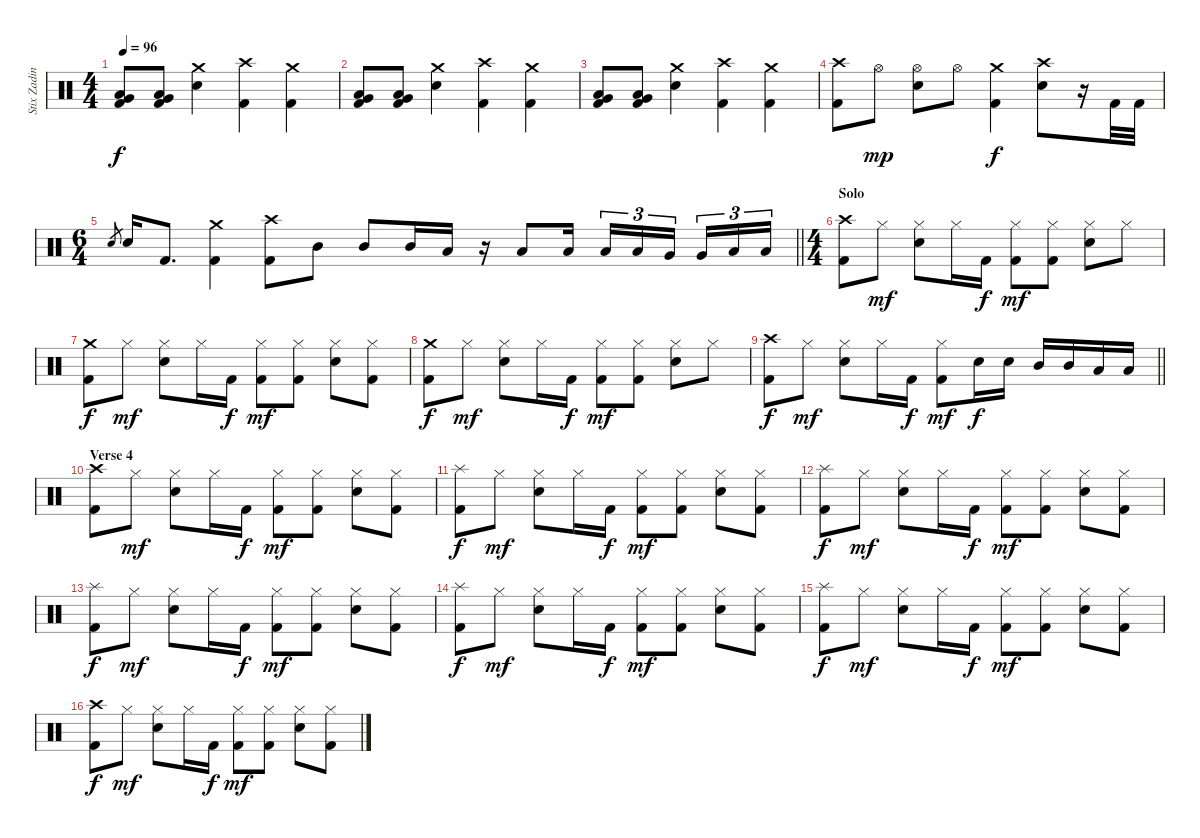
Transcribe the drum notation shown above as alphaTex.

\track ("Stix Zadinia" "Stix Zadin") {instrument percussion}
\staff {score}
\articulation defaults
\ts (4 4)
\tempo 96
\clef neutral
\ks c
("Very Low Tom (hit)" "Low Floor Tom (hit)" "Kick (hit) 2").8{dy f} ("Very Low Tom (hit)" "Low Floor Tom (hit)" "Kick (hit) 2").8 ("Crash medium (hit)" "Electric Snare (hit)").4 ("Crash high (hit)" "Kick (hit) 2").4 ("Crash medium (hit)" "Kick (hit) 2").4 |
("Very Low Tom (hit)" "Low Floor Tom (hit)" "Kick (hit) 2").8 ("Very Low Tom (hit)" "Low Floor Tom (hit)" "Kick (hit) 2").8 ("Crash medium (hit)" "Electric Snare (hit)").4 ("Crash high (hit)" "Kick (hit) 2").4 ("Crash medium (hit)" "Kick (hit) 2").4 |
("Very Low Tom (hit)" "Low Floor Tom (hit)" "Kick (hit) 2").8 ("Very Low Tom (hit)" "Low Floor Tom (hit)" "Kick (hit) 2").8 ("Crash medium (hit)" "Electric Snare (hit)").4 ("Crash high (hit)" "Kick (hit) 2").4 ("Crash medium (hit)" "Kick (hit) 2").4 |
("Crash high (hit)" "Kick (hit) 2").8 "Hi-Hat (open)".8{dy mp} ("Hi-Hat (open)" "Electric Snare (hit)").8 "Hi-Hat (open)".8 ("Crash medium (hit)" "Kick (hit) 2").4{dy f} ("Crash high (hit)" "Electric Snare (hit)").8 r.16 "Kick (hit) 2".32 "Kick (hit) 2".32 |
\ts (6 4)
\barLineRight lightlight "Electric Snare (hit)"{h}.8{gr} "Electric Snare (hit)".16 "Kick (hit) 2".8{d}
("Crash medium (hit)" "Kick (hit) 2").4 ("Crash high (hit)" "Kick (hit) 2").8 "Mid Tom (hit)".8 "Mid Tom (hit)".8 "Mid Tom (hit)".16 "Low Tom (hit)".16 r.16 "Low Tom (hit)".8 "Low Tom (hit)".16{beam splitsecondary} "Low Tom (hit)".16{tu (3 2)} "Low Tom (hit)".16{tu (3 2)} "Very Low Tom (hit)".16{tu (3 2) beam splitsecondary} "Very Low Tom (hit)".16{tu (3 2)} "Low Floor Tom (hit)".16{tu (3 2)} "Low Floor Tom (hit)".16{tu (3 2)} |
\ts (4 4)
\section ("" "Solo")
("Crash high (hit)" "Kick (hit) 2").8 "Hi-Hat (closed)".8{dy mf} ("Hi-Hat (closed)" "Electric Snare (hit)").8 "Hi-Hat (closed)".16 "Kick (hit) 2".16{dy f} ("Hi-Hat (closed)" "Kick (hit) 2").8{dy mf} ("Hi-Hat (closed)" "Kick (hit) 2").8 ("Hi-Hat (closed)" "Electric Snare (hit)").8 "Hi-Hat (closed)".8 |
("Crash medium (hit)" "Kick (hit) 2").8{dy f} "Hi-Hat (closed)".8{dy mf} ("Hi-Hat (closed)" "Electric Snare (hit)").8 "Hi-Hat (closed)".16 "Kick (hit) 2".16{dy f} ("Hi-Hat (closed)" "Kick (hit) 2").8{dy mf} ("Hi-Hat (closed)" "Kick (hit) 2").8 ("Hi-Hat (closed)" "Electric Snare (hit)").8 ("Hi-Hat (closed)" "Kick (hit) 2").8 |
("Crash medium (hit)" "Kick (hit) 2").8{dy f} "Hi-Hat (closed)".8{dy mf} ("Hi-Hat (closed)" "Electric Snare (hit)").8 "Hi-Hat (closed)".16 "Kick (hit) 2".16{dy f} ("Hi-Hat (closed)" "Kick (hit) 2").8{dy mf} ("Hi-Hat (closed)" "Kick (hit) 2").8 ("Hi-Hat (closed)" "Electric Snare (hit)").8 "Hi-Hat (closed)".8 |
\barLineRight lightlight
("Crash high (hit)" "Kick (hit) 2").8{dy f} "Hi-Hat (closed)".8{dy mf} ("Hi-Hat (closed)" "Electric Snare (hit)").8 "Hi-Hat (closed)".16 "Kick (hit) 2".16{dy f} ("Hi-Hat (closed)" "Kick (hit) 2").8{dy mf} "Electric Snare (hit)".16{dy f} "Electric Snare (hit)".16 "Mid Tom (hit)".16 "Mid Tom (hit)".16 "Low Tom (hit)".16 "Low Tom (hit)".16 |
\section ("" "Verse 4")
("Crash high (hit)" "Kick (hit) 2").8 "Hi-Hat (closed)".8{dy mf} ("Hi-Hat (closed)" "Electric Snare (hit)").8 "Hi-Hat (closed)".16 "Kick (hit) 2".16{dy f} ("Hi-Hat (closed)" "Kick (hit) 2").8{dy mf} ("Hi-Hat (closed)" "Kick (hit) 2").8 ("Hi-Hat (closed)" "Electric Snare (hit)").8 ("Hi-Hat (closed)" "Kick (hit) 2").8 |
("Splash (hit)" "Kick (hit) 2").8{dy f} "Hi-Hat (closed)".8{dy mf} ("Hi-Hat (closed)" "Electric Snare (hit)").8 "Hi-Hat (closed)".16 "Kick (hit) 2".16{dy f} ("Hi-Hat (closed)" "Kick (hit) 2").8{dy mf} ("Hi-Hat (closed)" "Kick (hit) 2").8 ("Hi-Hat (closed)" "Electric Snare (hit)").8 ("Hi-Hat (closed)" "Kick (hit) 2").8 |
("Splash (hit)" "Kick (hit) 2").8{dy f} "Hi-Hat (closed)".8{dy mf} ("Hi-Hat (closed)" "Electric Snare (hit)").8 "Hi-Hat (closed)".16 "Kick (hit) 2".16{dy f} ("Hi-Hat (closed)" "Kick (hit) 2").8{dy mf} ("Hi-Hat (closed)" "Kick (hit) 2").8 ("Hi-Hat (closed)" "Electric Snare (hit)").8 ("Hi-Hat (closed)" "Kick (hit) 2").8 |
("Splash (hit)" "Kick (hit) 2").8{dy f} "Hi-Hat (closed)".8{dy mf} ("Hi-Hat (closed)" "Electric Snare (hit)").8 "Hi-Hat (closed)".16 "Kick (hit) 2".16{dy f} ("Hi-Hat (closed)" "Kick (hit) 2").8{dy mf} ("Hi-Hat (closed)" "Kick (hit) 2").8 ("Hi-Hat (closed)" "Electric Snare (hit)").8 ("Hi-Hat (closed)" "Kick (hit) 2").8 |
("Splash (hit)" "Kick (hit) 2").8{dy f} "Hi-Hat (closed)".8{dy mf} ("Hi-Hat (closed)" "Electric Snare (hit)").8 "Hi-Hat (closed)".16 "Kick (hit) 2".16{dy f} ("Hi-Hat (closed)" "Kick (hit) 2").8{dy mf} ("Hi-Hat (closed)" "Kick (hit) 2").8 ("Hi-Hat (closed)" "Electric Snare (hit)").8 ("Hi-Hat (closed)" "Kick (hit) 2").8 |
("Splash (hit)" "Kick (hit) 2").8{dy f} "Hi-Hat (closed)".8{dy mf} ("Hi-Hat (closed)" "Electric Snare (hit)").8 "Hi-Hat (closed)".16 "Kick (hit) 2".16{dy f} ("Hi-Hat (closed)" "Kick (hit) 2").8{dy mf} ("Hi-Hat (closed)" "Kick (hit) 2").8 ("Hi-Hat (closed)" "Electric Snare (hit)").8 ("Hi-Hat (closed)" "Kick (hit) 2").8 |
("Crash high (hit)" "Kick (hit) 2").8{dy f} "Hi-Hat (closed)".8{dy mf} ("Hi-Hat (closed)" "Electric Snare (hit)").8 "Hi-Hat (closed)".16 "Kick (hit) 2".16{dy f} ("Hi-Hat (closed)" "Kick (hit) 2").8{dy mf} ("Hi-Hat (closed)" "Kick (hit) 2").8 ("Hi-Hat (closed)" "Electric Snare (hit)").8 ("Hi-Hat (closed)" "Kick (hit) 2").8
